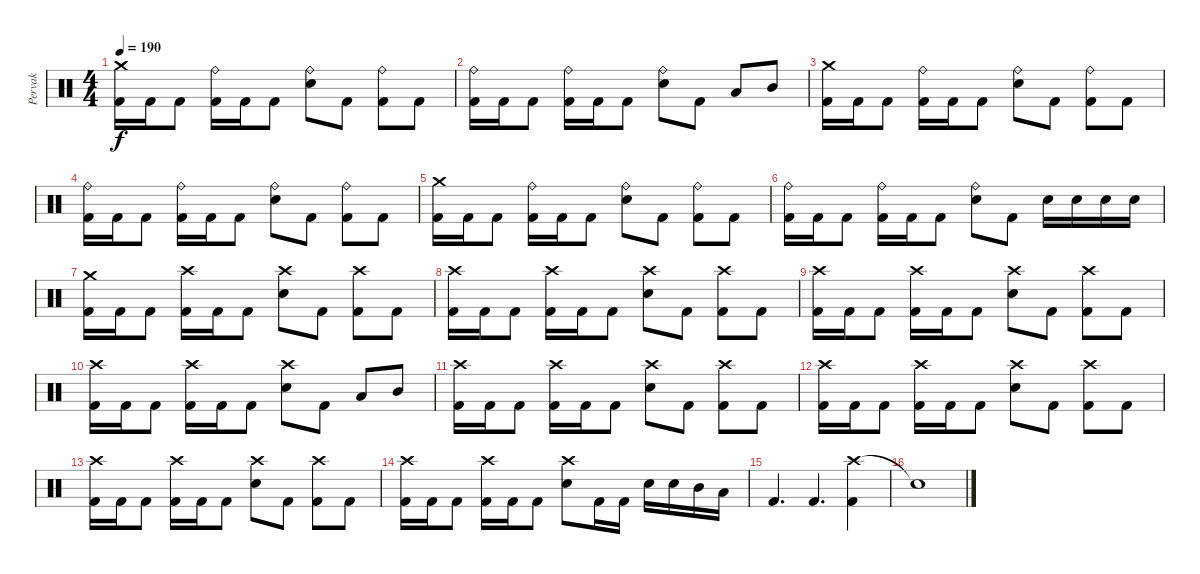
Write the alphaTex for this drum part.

\track ("Pervak" "Pervak") {instrument percussion}
\staff {score}
\articulation defaults
\ts (4 4)
\tempo 190
\clef neutral
\ks c
("Crash medium (hit)" "Kick (hit) 2").16{dy f} "Kick (hit) 2".16 "Kick (hit) 2".8 ("Ride (bell)" "Kick (hit) 2").16 "Kick (hit) 2".16 "Kick (hit) 2".8 ("Ride (bell)" "Electric Snare (hit)").8 "Kick (hit) 2".8 ("Ride (bell)" "Kick (hit) 2").8 "Kick (hit) 2".8 |
("Ride (bell)" "Kick (hit) 2").16 "Kick (hit) 2".16 "Kick (hit) 2".8 ("Ride (bell)" "Kick (hit) 2").16 "Kick (hit) 2".16 "Kick (hit) 2".8 ("Ride (bell)" "Electric Snare (hit)").8 "Kick (hit) 2".8 "Low Tom (hit)".8 "Mid Tom (hit)".8 |
("Crash medium (hit)" "Kick (hit) 2").16 "Kick (hit) 2".16 "Kick (hit) 2".8 ("Ride (bell)" "Kick (hit) 2").16 "Kick (hit) 2".16 "Kick (hit) 2".8 ("Ride (bell)" "Electric Snare (hit)").8 "Kick (hit) 2".8 ("Ride (bell)" "Kick (hit) 2").8 "Kick (hit) 2".8 |
("Ride (bell)" "Kick (hit) 2").16 "Kick (hit) 2".16 "Kick (hit) 2".8 ("Ride (bell)" "Kick (hit) 2").16 "Kick (hit) 2".16 "Kick (hit) 2".8 ("Ride (bell)" "Electric Snare (hit)").8 "Kick (hit) 2".8 ("Ride (bell)" "Kick (hit) 2").8 "Kick (hit) 2".8 |
("Crash medium (hit)" "Kick (hit) 2").16 "Kick (hit) 2".16 "Kick (hit) 2".8 ("Ride (bell)" "Kick (hit) 2").16 "Kick (hit) 2".16 "Kick (hit) 2".8 ("Ride (bell)" "Electric Snare (hit)").8 "Kick (hit) 2".8 ("Ride (bell)" "Kick (hit) 2").8 "Kick (hit) 2".8 |
("Ride (bell)" "Kick (hit) 2").16 "Kick (hit) 2".16 "Kick (hit) 2".8 ("Ride (bell)" "Kick (hit) 2").16 "Kick (hit) 2".16 "Kick (hit) 2".8 ("Ride (bell)" "Electric Snare (hit)").8 "Kick (hit) 2".8 "Electric Snare (hit)".16 "Electric Snare (hit)".16 "Electric Snare (hit)".16 "Electric Snare (hit)".16 |
("Crash medium (hit)" "Kick (hit) 2").16 "Kick (hit) 2".16 "Kick (hit) 2".8 ("Crash high (hit)" "Kick (hit) 2").16 "Kick (hit) 2".16 "Kick (hit) 2".8 ("Crash high (hit)" "Electric Snare (hit)").8 "Kick (hit) 2".8 ("Crash high (hit)" "Kick (hit) 2").8 "Kick (hit) 2".8 |
("Crash high (hit)" "Kick (hit) 2").16 "Kick (hit) 2".16 "Kick (hit) 2".8 ("Crash high (hit)" "Kick (hit) 2").16 "Kick (hit) 2".16 "Kick (hit) 2".8 ("Crash high (hit)" "Electric Snare (hit)").8 "Kick (hit) 2".8 ("Crash high (hit)" "Kick (hit) 2").8 "Kick (hit) 2".8 |
("Crash high (hit)" "Kick (hit) 2").16 "Kick (hit) 2".16 "Kick (hit) 2".8 ("Crash high (hit)" "Kick (hit) 2").16 "Kick (hit) 2".16 "Kick (hit) 2".8 ("Crash high (hit)" "Electric Snare (hit)").8 "Kick (hit) 2".8 ("Crash high (hit)" "Kick (hit) 2").8 "Kick (hit) 2".8 |
("Crash high (hit)" "Kick (hit) 2").16 "Kick (hit) 2".16 "Kick (hit) 2".8 ("Crash high (hit)" "Kick (hit) 2").16 "Kick (hit) 2".16 "Kick (hit) 2".8 ("Crash high (hit)" "Electric Snare (hit)").8 "Kick (hit) 2".8 "Low Tom (hit)".8 "Mid Tom (hit)".8 |
("Crash high (hit)" "Kick (hit) 2").16 "Kick (hit) 2".16 "Kick (hit) 2".8 ("Crash high (hit)" "Kick (hit) 2").16 "Kick (hit) 2".16 "Kick (hit) 2".8 ("Crash high (hit)" "Electric Snare (hit)").8 "Kick (hit) 2".8 ("Crash high (hit)" "Kick (hit) 2").8 "Kick (hit) 2".8 |
("Crash high (hit)" "Kick (hit) 2").16 "Kick (hit) 2".16 "Kick (hit) 2".8 ("Crash high (hit)" "Kick (hit) 2").16 "Kick (hit) 2".16 "Kick (hit) 2".8 ("Crash high (hit)" "Electric Snare (hit)").8 "Kick (hit) 2".8 ("Crash high (hit)" "Kick (hit) 2").8 "Kick (hit) 2".8 |
("Crash high (hit)" "Kick (hit) 2").16 "Kick (hit) 2".16 "Kick (hit) 2".8 ("Crash high (hit)" "Kick (hit) 2").16 "Kick (hit) 2".16 "Kick (hit) 2".8 ("Crash high (hit)" "Electric Snare (hit)").8 "Kick (hit) 2".8 ("Crash high (hit)" "Kick (hit) 2").8 "Kick (hit) 2".8 |
("Crash high (hit)" "Kick (hit) 2").16 "Kick (hit) 2".16 "Kick (hit) 2".8 ("Crash high (hit)" "Kick (hit) 2").16 "Kick (hit) 2".16 "Kick (hit) 2".8 ("Crash high (hit)" "Electric Snare (hit)").8 "Kick (hit) 2".16 "Kick (hit) 2".16 "Electric Snare (hit)".16 "Electric Snare (hit)".16 "Mid Tom (hit)".16 "Low Tom (hit)".16 |
"Kick (hit) 2".4{d} "Kick (hit) 2".4{d} ("Crash high (hit)" "Kick (hit) 2").4 |
"Snare (hit)"{t}.1
